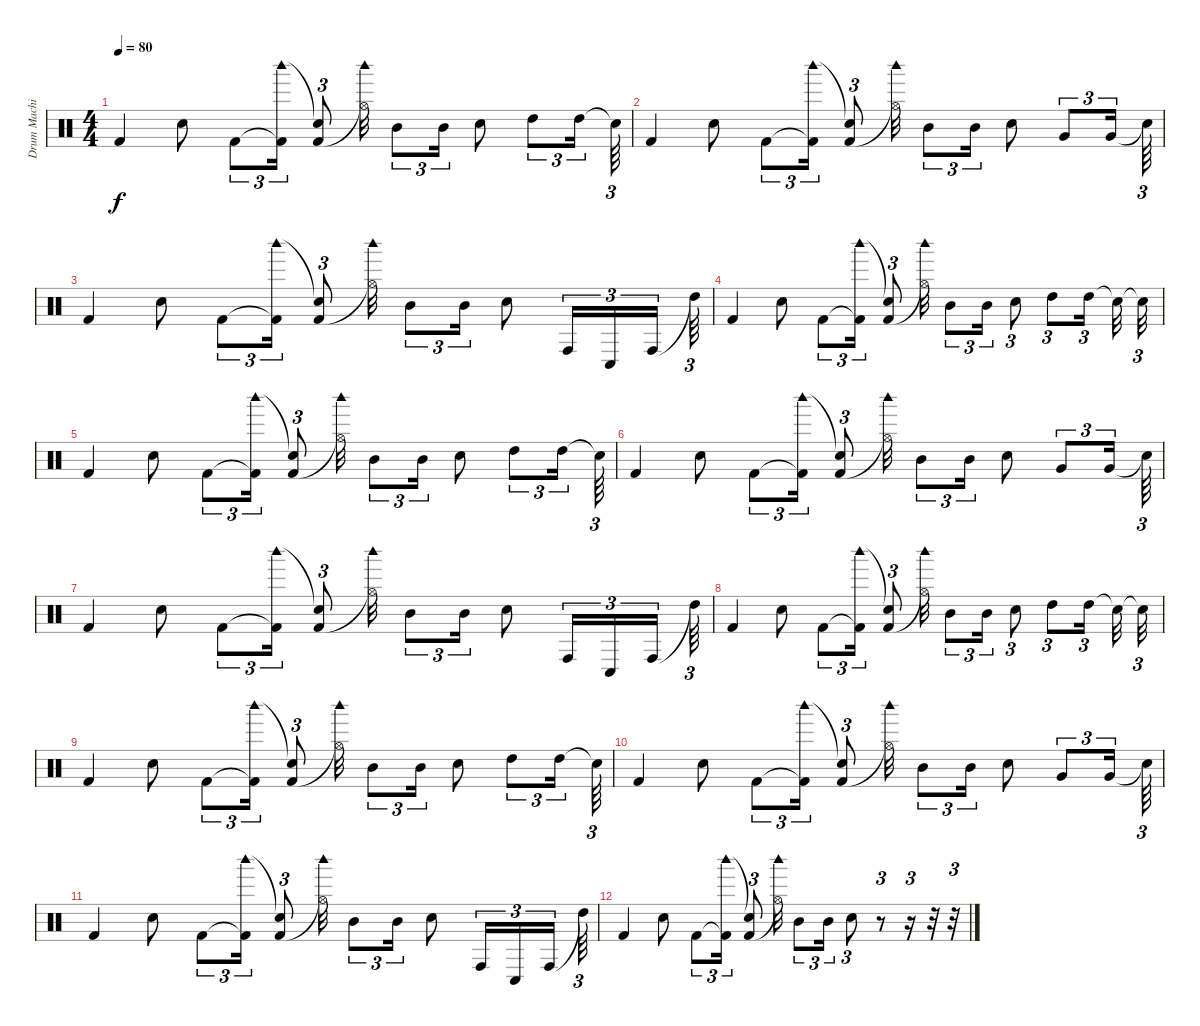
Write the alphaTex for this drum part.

\track ("Drum Machine" "Drum Machi") {instrument percussion}
\staff {score}
\articulation defaults
\ts (4 4)
\tempo 80
\clef neutral
\ks c "Kick (hit) 2".4{dy f} "Electric Snare (hit)".8 "Kick (hit) 2".8{tu (3 2)}
("Kick (hit) 2"{t} "Woodblock high (hit)").16{tu (3 2)} ("Kick (hit) 2" "Snare (hit)"{t}).8{tu (3 2)} ("Hi-Hat (open)"{t} "Woodblock high (hit)").32 "Mid Tom (hit)".8{tu (3 2)} "Mid Tom (hit)".16{tu (3 2)} "Electric Snare (hit)".8 "High Tom (hit)".8{tu (3 2)} "High Tom (hit)".16{tu (3 2)} "Snare (hit)"{t}.64{tu (3 2)} |
"Kick (hit) 2".4 "Electric Snare (hit)".8 "Kick (hit) 2".8{tu (3 2)} ("Kick (hit) 2"{t} "Woodblock high (hit)").16{tu (3 2)} ("Kick (hit) 2" "Snare (hit)"{t}).8{tu (3 2)} ("Hi-Hat (open)"{t} "Woodblock high (hit)").32 "Mid Tom (hit)".8{tu (3 2)} "Mid Tom (hit)".16{tu (3 2)} "Electric Snare (hit)".8 "Very Low Tom (hit)".8{tu (3 2)} "Very Low Tom (hit)".16{tu (3 2)} "Snare (hit)"{t}.64{tu (3 2)} |
"Kick (hit) 2".4 "Electric Snare (hit)".8 "Kick (hit) 2".8{tu (3 2)} ("Kick (hit) 2"{t} "Woodblock high (hit)").16{tu (3 2)} ("Kick (hit) 2" "Snare (hit)"{t}).8{tu (3 2)} ("Hi-Hat (open)"{t} "Woodblock high (hit)").32 "Mid Tom (hit)".8{tu (3 2)} "Mid Tom (hit)".16{tu (3 2)} "Electric Snare (hit)".8 "Conga high (hit)".16{tu (3 2)} "Conga low (hit)".16{tu (3 2)} "Conga high (hit)".16{tu (3 2) beam splitsecondary} "High Tom (hit)"{t}.64{tu (3 2)} |
"Kick (hit) 2".4 "Electric Snare (hit)".8 "Kick (hit) 2".8{tu (3 2)} ("Kick (hit) 2"{t} "Woodblock high (hit)").16{tu (3 2)} ("Kick (hit) 2" "Snare (hit)"{t}).8{tu (3 2)} ("Hi-Hat (open)"{t} "Woodblock high (hit)").32 "Mid Tom (hit)".8{tu (3 2)} "Mid Tom (hit)".16{tu (3 2)} "Electric Snare (hit)".8{tu (3 2)} "High Tom (hit)".8{tu (3 2)} "High Tom (hit)".16{tu (3 2) beam splitsecondary} "Snare (hit)"{t}.32 "Snare (hit)"{t}.32{tu (3 2)} |
"Kick (hit) 2".4 "Electric Snare (hit)".8 "Kick (hit) 2".8{tu (3 2)} ("Kick (hit) 2"{t} "Woodblock high (hit)").16{tu (3 2)} ("Kick (hit) 2" "Snare (hit)"{t}).8{tu (3 2)} ("Hi-Hat (open)"{t} "Woodblock high (hit)").32 "Mid Tom (hit)".8{tu (3 2)} "Mid Tom (hit)".16{tu (3 2)} "Electric Snare (hit)".8 "High Tom (hit)".8{tu (3 2)} "High Tom (hit)".16{tu (3 2)} "Snare (hit)"{t}.64{tu (3 2)} |
"Kick (hit) 2".4 "Electric Snare (hit)".8 "Kick (hit) 2".8{tu (3 2)} ("Kick (hit) 2"{t} "Woodblock high (hit)").16{tu (3 2)} ("Kick (hit) 2" "Snare (hit)"{t}).8{tu (3 2)} ("Hi-Hat (open)"{t} "Woodblock high (hit)").32 "Mid Tom (hit)".8{tu (3 2)} "Mid Tom (hit)".16{tu (3 2)} "Electric Snare (hit)".8 "Very Low Tom (hit)".8{tu (3 2)} "Very Low Tom (hit)".16{tu (3 2)} "Snare (hit)"{t}.64{tu (3 2)} |
"Kick (hit) 2".4 "Electric Snare (hit)".8 "Kick (hit) 2".8{tu (3 2)} ("Kick (hit) 2"{t} "Woodblock high (hit)").16{tu (3 2)} ("Kick (hit) 2" "Snare (hit)"{t}).8{tu (3 2)} ("Hi-Hat (open)"{t} "Woodblock high (hit)").32 "Mid Tom (hit)".8{tu (3 2)} "Mid Tom (hit)".16{tu (3 2)} "Electric Snare (hit)".8 "Conga high (hit)".16{tu (3 2)} "Conga low (hit)".16{tu (3 2)} "Conga high (hit)".16{tu (3 2) beam splitsecondary} "High Tom (hit)"{t}.64{tu (3 2)} |
"Kick (hit) 2".4 "Electric Snare (hit)".8 "Kick (hit) 2".8{tu (3 2)} ("Kick (hit) 2"{t} "Woodblock high (hit)").16{tu (3 2)} ("Kick (hit) 2" "Snare (hit)"{t}).8{tu (3 2)} ("Hi-Hat (open)"{t} "Woodblock high (hit)").32 "Mid Tom (hit)".8{tu (3 2)} "Mid Tom (hit)".16{tu (3 2)} "Electric Snare (hit)".8{tu (3 2)} "High Tom (hit)".8{tu (3 2)} "High Tom (hit)".16{tu (3 2) beam splitsecondary} "Snare (hit)"{t}.32 "Snare (hit)"{t}.32{tu (3 2)} |
"Kick (hit) 2".4 "Electric Snare (hit)".8 "Kick (hit) 2".8{tu (3 2)} ("Kick (hit) 2"{t} "Woodblock high (hit)").16{tu (3 2)} ("Kick (hit) 2" "Snare (hit)"{t}).8{tu (3 2)} ("Hi-Hat (open)"{t} "Woodblock high (hit)").32 "Mid Tom (hit)".8{tu (3 2)} "Mid Tom (hit)".16{tu (3 2)} "Electric Snare (hit)".8 "High Tom (hit)".8{tu (3 2)} "High Tom (hit)".16{tu (3 2)} "Snare (hit)"{t}.64{tu (3 2)} |
"Kick (hit) 2".4 "Electric Snare (hit)".8 "Kick (hit) 2".8{tu (3 2)} ("Kick (hit) 2"{t} "Woodblock high (hit)").16{tu (3 2)} ("Kick (hit) 2" "Snare (hit)"{t}).8{tu (3 2)} ("Hi-Hat (open)"{t} "Woodblock high (hit)").32 "Mid Tom (hit)".8{tu (3 2)} "Mid Tom (hit)".16{tu (3 2)} "Electric Snare (hit)".8 "Very Low Tom (hit)".8{tu (3 2)} "Very Low Tom (hit)".16{tu (3 2)} "Snare (hit)"{t}.64{tu (3 2)} |
"Kick (hit) 2".4 "Electric Snare (hit)".8 "Kick (hit) 2".8{tu (3 2)} ("Kick (hit) 2"{t} "Woodblock high (hit)").16{tu (3 2)} ("Kick (hit) 2" "Snare (hit)"{t}).8{tu (3 2)} ("Hi-Hat (open)"{t} "Woodblock high (hit)").32 "Mid Tom (hit)".8{tu (3 2)} "Mid Tom (hit)".16{tu (3 2)} "Electric Snare (hit)".8 "Conga high (hit)".16{tu (3 2)} "Conga low (hit)".16{tu (3 2)} "Conga high (hit)".16{tu (3 2) beam splitsecondary} "High Tom (hit)"{t}.64{tu (3 2)} |
"Kick (hit) 2".4 "Electric Snare (hit)".8 "Kick (hit) 2".8{tu (3 2)} ("Kick (hit) 2"{t} "Woodblock high (hit)").16{tu (3 2)} ("Kick (hit) 2" "Snare (hit)"{t}).8{tu (3 2)} ("Hi-Hat (open)"{t} "Woodblock high (hit)").32 "Mid Tom (hit)".8{tu (3 2)} "Mid Tom (hit)".16{tu (3 2)} "Electric Snare (hit)".8{tu (3 2)} r.8{tu (3 2)} r.16{tu (3 2)} r.32 r.32{tu (3 2)}
